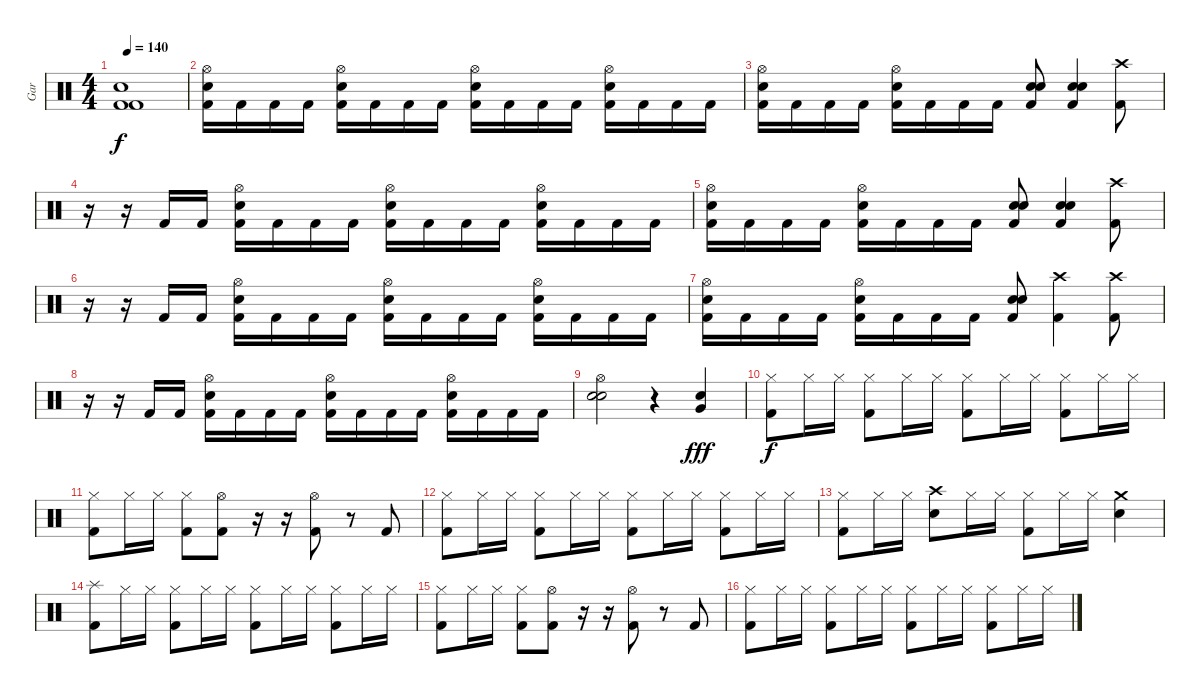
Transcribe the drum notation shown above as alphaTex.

\track ("Gar" "Gar") {instrument percussion}
\staff {score}
\articulation defaults
\ts (4 4)
\tempo 140
\clef neutral
\ks c
("Snare (hit) 2" "Kick (hit) 2" "Kick (hit) 2").1{dy f} |
("Hi-Hat (open)" "Snare (hit) 2" "Kick (hit) 2").16 "Kick (hit) 2".16 "Kick (hit) 2".16 "Kick (hit) 2".16 ("Hi-Hat (open)" "Snare (hit) 2" "Kick (hit) 2").16 "Kick (hit) 2".16 "Kick (hit) 2".16 "Kick (hit) 2".16 ("Hi-Hat (open)" "Snare (hit) 2" "Kick (hit) 2").16 "Kick (hit) 2".16 "Kick (hit) 2".16 "Kick (hit) 2".16 ("Hi-Hat (open)" "Snare (hit) 2" "Kick (hit) 2").16 "Kick (hit) 2".16 "Kick (hit) 2".16 "Kick (hit) 2".16 |
("Hi-Hat (open)" "Snare (hit) 2" "Kick (hit) 2").16 "Kick (hit) 2".16 "Kick (hit) 2".16 "Kick (hit) 2".16 ("Hi-Hat (open)" "Snare (hit) 2" "Kick (hit) 2").16 "Kick (hit) 2".16 "Kick (hit) 2".16 "Kick (hit) 2".16 ("Kick (hit) 2" "Snare (hit) 2" "Snare (hit) 2").8 ("Kick (hit) 2" "Snare (hit) 2" "Snare (hit) 2").4 ("Crash high (hit)" "Kick (hit) 2").8 |
r.16 r.16 "Kick (hit) 2".16 "Kick (hit) 2".16 ("Hi-Hat (open)" "Snare (hit) 2" "Kick (hit) 2").16 "Kick (hit) 2".16 "Kick (hit) 2".16 "Kick (hit) 2".16 ("Hi-Hat (open)" "Snare (hit) 2" "Kick (hit) 2").16 "Kick (hit) 2".16 "Kick (hit) 2".16 "Kick (hit) 2".16 ("Hi-Hat (open)" "Snare (hit) 2" "Kick (hit) 2").16 "Kick (hit) 2".16 "Kick (hit) 2".16 "Kick (hit) 2".16 |
("Hi-Hat (open)" "Snare (hit) 2" "Kick (hit) 2").16 "Kick (hit) 2".16 "Kick (hit) 2".16 "Kick (hit) 2".16 ("Hi-Hat (open)" "Snare (hit) 2" "Kick (hit) 2").16 "Kick (hit) 2".16 "Kick (hit) 2".16 "Kick (hit) 2".16 ("Kick (hit) 2" "Snare (hit) 2" "Snare (hit) 2").8 ("Kick (hit) 2" "Snare (hit) 2" "Snare (hit) 2").4 ("Crash high (hit)" "Kick (hit) 2").8 |
r.16 r.16 "Kick (hit) 2".16 "Kick (hit) 2".16 ("Hi-Hat (open)" "Snare (hit) 2" "Kick (hit) 2").16 "Kick (hit) 2".16 "Kick (hit) 2".16 "Kick (hit) 2".16 ("Hi-Hat (open)" "Snare (hit) 2" "Kick (hit) 2").16 "Kick (hit) 2".16 "Kick (hit) 2".16 "Kick (hit) 2".16 ("Hi-Hat (open)" "Snare (hit) 2" "Kick (hit) 2").16 "Kick (hit) 2".16 "Kick (hit) 2".16 "Kick (hit) 2".16 |
("Hi-Hat (open)" "Snare (hit) 2" "Kick (hit) 2").16 "Kick (hit) 2".16 "Kick (hit) 2".16 "Kick (hit) 2".16 ("Hi-Hat (open)" "Snare (hit) 2" "Kick (hit) 2").16 "Kick (hit) 2".16 "Kick (hit) 2".16 "Kick (hit) 2".16 ("Kick (hit) 2" "Snare (hit) 2" "Snare (hit) 2").8 ("Crash high (hit)" "Kick (hit) 2").4 ("Crash high (hit)" "Kick (hit) 2").8 |
r.16 r.16 "Kick (hit) 2".16 "Kick (hit) 2".16 ("Hi-Hat (open)" "Snare (hit) 2" "Kick (hit) 2").16 "Kick (hit) 2".16 "Kick (hit) 2".16 "Kick (hit) 2".16 ("Hi-Hat (open)" "Snare (hit) 2" "Kick (hit) 2").16 "Kick (hit) 2".16 "Kick (hit) 2".16 "Kick (hit) 2".16 ("Hi-Hat (open)" "Snare (hit) 2" "Kick (hit) 2").16 "Kick (hit) 2".16 "Kick (hit) 2".16 "Kick (hit) 2".16 |
("Hi-Hat (open)" "Snare (hit) 2" "Snare (hit) 2").2 r.4 ("Very Low Tom (hit)" "Snare (hit) 2").4{dy fff} |
("Hi-Hat (closed)" "Kick (hit) 2").8{dy f} "Hi-Hat (closed)".16 "Hi-Hat (closed)".16 ("Hi-Hat (closed)" "Kick (hit) 2").8 "Hi-Hat (closed)".16 "Hi-Hat (closed)".16 ("Hi-Hat (closed)" "Kick (hit) 2").8 "Hi-Hat (closed)".16 "Hi-Hat (closed)".16 ("Hi-Hat (closed)" "Kick (hit) 2").8 "Hi-Hat (closed)".16 "Hi-Hat (closed)".16 |
("Hi-Hat (closed)" "Kick (hit) 2").8 "Hi-Hat (closed)".16 "Hi-Hat (closed)".16 ("Hi-Hat (closed)" "Kick (hit) 2").8 ("Hi-Hat (open)" "Kick (hit) 2").8 r.16 r.16 ("Hi-Hat (open)" "Kick (hit) 2").8 r.8 "Kick (hit) 2".8 |
("Hi-Hat (closed)" "Kick (hit) 2").8 "Hi-Hat (closed)".16 "Hi-Hat (closed)".16 ("Hi-Hat (closed)" "Kick (hit) 2").8 "Hi-Hat (closed)".16 "Hi-Hat (closed)".16 ("Hi-Hat (closed)" "Kick (hit) 2").8 "Hi-Hat (closed)".16 "Hi-Hat (closed)".16 ("Hi-Hat (closed)" "Kick (hit) 2").8 "Hi-Hat (closed)".16 "Hi-Hat (closed)".16 |
("Hi-Hat (closed)" "Kick (hit) 2").8 "Hi-Hat (closed)".16 "Hi-Hat (closed)".16 ("Crash high (hit)" "Snare (hit) 2").8 "Hi-Hat (closed)".16 "Hi-Hat (closed)".16 ("Hi-Hat (closed)" "Kick (hit) 2").8 "Hi-Hat (closed)".16 "Hi-Hat (closed)".16 ("Crash medium (hit)" "Snare (hit) 2").4 |
("Splash (hit)" "Kick (hit) 2").8 "Hi-Hat (closed)".16 "Hi-Hat (closed)".16 ("Hi-Hat (closed)" "Kick (hit) 2").8 "Hi-Hat (closed)".16 "Hi-Hat (closed)".16 ("Hi-Hat (closed)" "Kick (hit) 2").8 "Hi-Hat (closed)".16 "Hi-Hat (closed)".16 ("Hi-Hat (closed)" "Kick (hit) 2").8 "Hi-Hat (closed)".16 "Hi-Hat (closed)".16 |
("Hi-Hat (closed)" "Kick (hit) 2").8 "Hi-Hat (closed)".16 "Hi-Hat (closed)".16 ("Hi-Hat (closed)" "Kick (hit) 2").8 ("Hi-Hat (open)" "Kick (hit) 2").8 r.16 r.16 ("Hi-Hat (open)" "Kick (hit) 2").8 r.8 "Kick (hit) 2".8 |
("Hi-Hat (closed)" "Kick (hit) 2").8 "Hi-Hat (closed)".16 "Hi-Hat (closed)".16 ("Hi-Hat (closed)" "Kick (hit) 2").8 "Hi-Hat (closed)".16 "Hi-Hat (closed)".16 ("Hi-Hat (closed)" "Kick (hit) 2").8 "Hi-Hat (closed)".16 "Hi-Hat (closed)".16 ("Hi-Hat (closed)" "Kick (hit) 2").8 "Hi-Hat (closed)".16 "Hi-Hat (closed)".16
